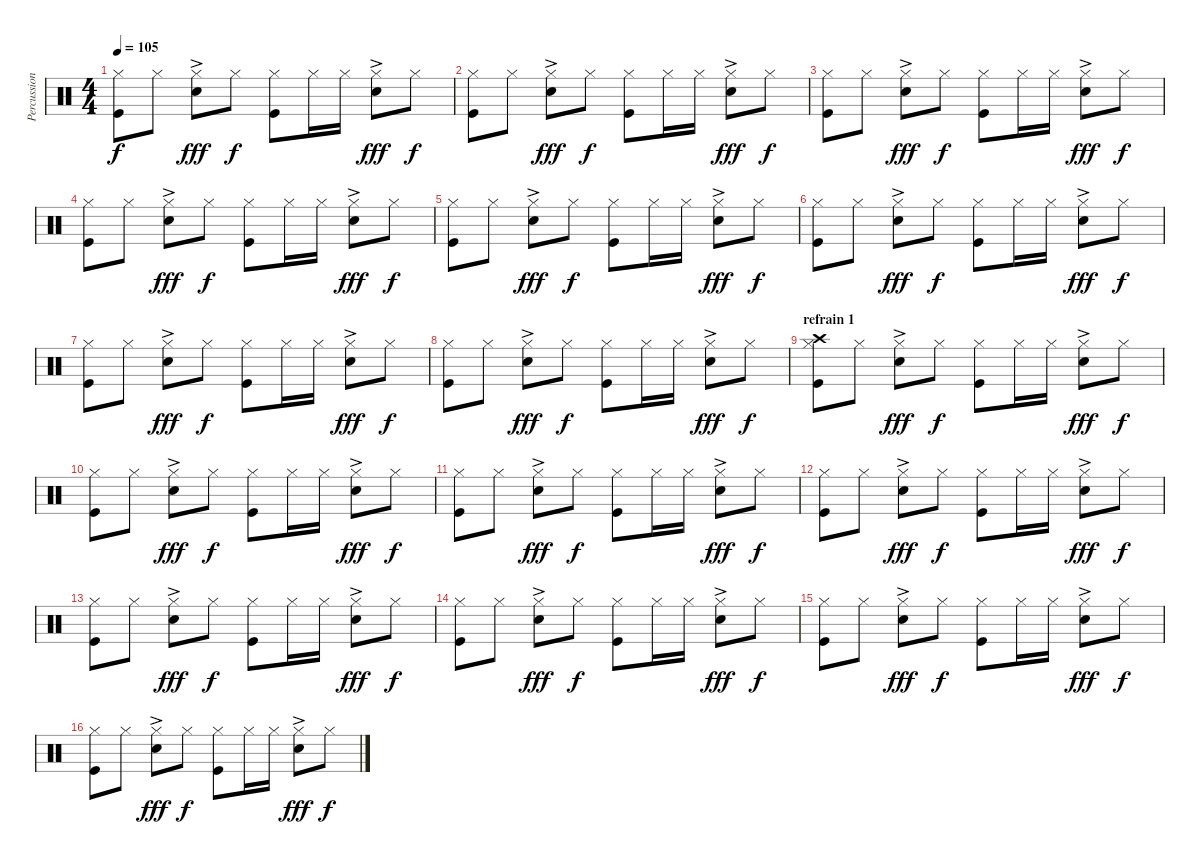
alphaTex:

\track ("Percussions" "Percussion") {instrument percussion}
\staff {score}
\articulation defaults
\ts (4 4)
\tempo 105
\clef neutral
\ks c
("Kick (hit)" "Hi-Hat (closed)").8{dy f} "Hi-Hat (closed)".8 ("Electric Snare (hit)"{ac} "Hi-Hat (closed)").8{dy fff} "Hi-Hat (closed)".8{dy f} ("Kick (hit)" "Hi-Hat (closed)").8 "Hi-Hat (closed)".16 "Hi-Hat (closed)".16 ("Electric Snare (hit)"{ac} "Hi-Hat (closed)").8{dy fff} "Hi-Hat (closed)".8{dy f} |
("Kick (hit)" "Hi-Hat (closed)").8 "Hi-Hat (closed)".8 ("Electric Snare (hit)"{ac} "Hi-Hat (closed)").8{dy fff} "Hi-Hat (closed)".8{dy f} ("Kick (hit)" "Hi-Hat (closed)").8 "Hi-Hat (closed)".16 "Hi-Hat (closed)".16 ("Electric Snare (hit)"{ac} "Hi-Hat (closed)").8{dy fff} "Hi-Hat (closed)".8{dy f} |
("Kick (hit)" "Hi-Hat (closed)").8 "Hi-Hat (closed)".8 ("Electric Snare (hit)"{ac} "Hi-Hat (closed)").8{dy fff} "Hi-Hat (closed)".8{dy f} ("Kick (hit)" "Hi-Hat (closed)").8 "Hi-Hat (closed)".16 "Hi-Hat (closed)".16 ("Electric Snare (hit)"{ac} "Hi-Hat (closed)").8{dy fff} "Hi-Hat (closed)".8{dy f} |
("Kick (hit)" "Hi-Hat (closed)").8 "Hi-Hat (closed)".8 ("Electric Snare (hit)"{ac} "Hi-Hat (closed)").8{dy fff} "Hi-Hat (closed)".8{dy f} ("Kick (hit)" "Hi-Hat (closed)").8 "Hi-Hat (closed)".16 "Hi-Hat (closed)".16 ("Electric Snare (hit)"{ac} "Hi-Hat (closed)").8{dy fff} "Hi-Hat (closed)".8{dy f} |
("Kick (hit)" "Hi-Hat (closed)").8 "Hi-Hat (closed)".8 ("Electric Snare (hit)"{ac} "Hi-Hat (closed)").8{dy fff} "Hi-Hat (closed)".8{dy f} ("Kick (hit)" "Hi-Hat (closed)").8 "Hi-Hat (closed)".16 "Hi-Hat (closed)".16 ("Electric Snare (hit)"{ac} "Hi-Hat (closed)").8{dy fff} "Hi-Hat (closed)".8{dy f} |
("Kick (hit)" "Hi-Hat (closed)").8 "Hi-Hat (closed)".8 ("Electric Snare (hit)"{ac} "Hi-Hat (closed)").8{dy fff} "Hi-Hat (closed)".8{dy f} ("Kick (hit)" "Hi-Hat (closed)").8 "Hi-Hat (closed)".16 "Hi-Hat (closed)".16 ("Electric Snare (hit)"{ac} "Hi-Hat (closed)").8{dy fff} "Hi-Hat (closed)".8{dy f} |
("Kick (hit)" "Hi-Hat (closed)").8 "Hi-Hat (closed)".8 ("Electric Snare (hit)"{ac} "Hi-Hat (closed)").8{dy fff} "Hi-Hat (closed)".8{dy f} ("Kick (hit)" "Hi-Hat (closed)").8 "Hi-Hat (closed)".16 "Hi-Hat (closed)".16 ("Electric Snare (hit)"{ac} "Hi-Hat (closed)").8{dy fff} "Hi-Hat (closed)".8{dy f} |
("Kick (hit)" "Hi-Hat (closed)").8 "Hi-Hat (closed)".8 ("Electric Snare (hit)"{ac} "Hi-Hat (closed)").8{dy fff} "Hi-Hat (closed)".8{dy f} ("Kick (hit)" "Hi-Hat (closed)").8 "Hi-Hat (closed)".16 "Hi-Hat (closed)".16 ("Electric Snare (hit)"{ac} "Hi-Hat (closed)").8{dy fff} "Hi-Hat (closed)".8{dy f} |
\section ("" "refrain 1")
("Kick (hit)" "Crash high (hit)" "Hi-Hat (closed)").8 "Hi-Hat (closed)".8 ("Electric Snare (hit)"{ac} "Hi-Hat (closed)").8{dy fff} "Hi-Hat (closed)".8{dy f} ("Kick (hit)" "Hi-Hat (closed)").8 "Hi-Hat (closed)".16 "Hi-Hat (closed)".16 ("Electric Snare (hit)"{ac} "Hi-Hat (closed)").8{dy fff} "Hi-Hat (closed)".8{dy f} |
("Kick (hit)" "Hi-Hat (closed)").8 "Hi-Hat (closed)".8 ("Electric Snare (hit)"{ac} "Hi-Hat (closed)").8{dy fff} "Hi-Hat (closed)".8{dy f} ("Kick (hit)" "Hi-Hat (closed)").8 "Hi-Hat (closed)".16 "Hi-Hat (closed)".16 ("Electric Snare (hit)"{ac} "Hi-Hat (closed)").8{dy fff} "Hi-Hat (closed)".8{dy f} |
("Kick (hit)" "Hi-Hat (closed)").8 "Hi-Hat (closed)".8 ("Electric Snare (hit)"{ac} "Hi-Hat (closed)").8{dy fff} "Hi-Hat (closed)".8{dy f} ("Kick (hit)" "Hi-Hat (closed)").8 "Hi-Hat (closed)".16 "Hi-Hat (closed)".16 ("Electric Snare (hit)"{ac} "Hi-Hat (closed)").8{dy fff} "Hi-Hat (closed)".8{dy f} |
("Kick (hit)" "Hi-Hat (closed)").8 "Hi-Hat (closed)".8 ("Electric Snare (hit)"{ac} "Hi-Hat (closed)").8{dy fff} "Hi-Hat (closed)".8{dy f} ("Kick (hit)" "Hi-Hat (closed)").8 "Hi-Hat (closed)".16 "Hi-Hat (closed)".16 ("Electric Snare (hit)"{ac} "Hi-Hat (closed)").8{dy fff} "Hi-Hat (closed)".8{dy f} |
("Kick (hit)" "Hi-Hat (closed)").8 "Hi-Hat (closed)".8 ("Electric Snare (hit)"{ac} "Hi-Hat (closed)").8{dy fff} "Hi-Hat (closed)".8{dy f} ("Kick (hit)" "Hi-Hat (closed)").8 "Hi-Hat (closed)".16 "Hi-Hat (closed)".16 ("Electric Snare (hit)"{ac} "Hi-Hat (closed)").8{dy fff} "Hi-Hat (closed)".8{dy f} |
("Kick (hit)" "Hi-Hat (closed)").8 "Hi-Hat (closed)".8 ("Electric Snare (hit)"{ac} "Hi-Hat (closed)").8{dy fff} "Hi-Hat (closed)".8{dy f} ("Kick (hit)" "Hi-Hat (closed)").8 "Hi-Hat (closed)".16 "Hi-Hat (closed)".16 ("Electric Snare (hit)"{ac} "Hi-Hat (closed)").8{dy fff} "Hi-Hat (closed)".8{dy f} |
("Kick (hit)" "Hi-Hat (closed)").8 "Hi-Hat (closed)".8 ("Electric Snare (hit)"{ac} "Hi-Hat (closed)").8{dy fff} "Hi-Hat (closed)".8{dy f} ("Kick (hit)" "Hi-Hat (closed)").8 "Hi-Hat (closed)".16 "Hi-Hat (closed)".16 ("Electric Snare (hit)"{ac} "Hi-Hat (closed)").8{dy fff} "Hi-Hat (closed)".8{dy f} |
("Kick (hit)" "Hi-Hat (closed)").8 "Hi-Hat (closed)".8 ("Electric Snare (hit)"{ac} "Hi-Hat (closed)").8{dy fff} "Hi-Hat (closed)".8{dy f} ("Kick (hit)" "Hi-Hat (closed)").8 "Hi-Hat (closed)".16 "Hi-Hat (closed)".16 ("Electric Snare (hit)"{ac} "Hi-Hat (closed)").8{dy fff} "Hi-Hat (closed)".8{dy f}
